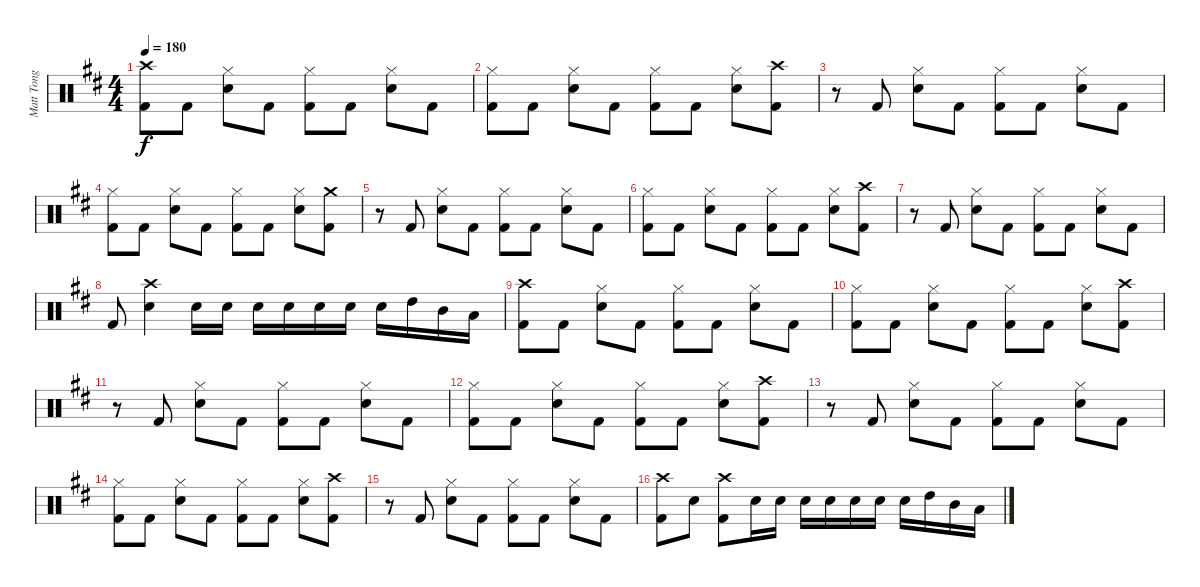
\track ("Matt Tong" "Matt Tong") {instrument percussion}
\staff {score}
\articulation defaults
\ts (4 4)
\tempo 180
\clef neutral
\ks d
("Crash high (hit)" "Kick (hit) 2").8{dy f} "Kick (hit) 2".8 ("Hi-Hat (closed)" "Electric Snare (hit)").8 "Kick (hit) 2".8 ("Hi-Hat (closed)" "Kick (hit) 2").8 "Kick (hit) 2".8 ("Hi-Hat (closed)" "Electric Snare (hit)").8 "Kick (hit) 2".8 |
("Hi-Hat (closed)" "Kick (hit) 2").8 "Kick (hit) 2".8 ("Hi-Hat (closed)" "Electric Snare (hit)").8 "Kick (hit) 2".8 ("Hi-Hat (closed)" "Kick (hit) 2").8 "Kick (hit) 2".8 ("Hi-Hat (closed)" "Electric Snare (hit)").8 ("Crash high (hit)" "Kick (hit) 2").8 |
r.8 "Kick (hit) 2".8 ("Hi-Hat (closed)" "Electric Snare (hit)").8 "Kick (hit) 2".8 ("Hi-Hat (closed)" "Kick (hit) 2").8 "Kick (hit) 2".8 ("Hi-Hat (closed)" "Electric Snare (hit)").8 "Kick (hit) 2".8 |
("Hi-Hat (closed)" "Kick (hit) 2").8 "Kick (hit) 2".8 ("Hi-Hat (closed)" "Electric Snare (hit)").8 "Kick (hit) 2".8 ("Hi-Hat (closed)" "Kick (hit) 2").8 "Kick (hit) 2".8 ("Hi-Hat (closed)" "Electric Snare (hit)").8 ("Crash medium (hit)" "Kick (hit) 2").8 |
r.8 "Kick (hit) 2".8 ("Hi-Hat (closed)" "Electric Snare (hit)").8 "Kick (hit) 2".8 ("Hi-Hat (closed)" "Kick (hit) 2").8 "Kick (hit) 2".8 ("Hi-Hat (closed)" "Electric Snare (hit)").8 "Kick (hit) 2".8 |
("Hi-Hat (closed)" "Kick (hit) 2").8 "Kick (hit) 2".8 ("Hi-Hat (closed)" "Electric Snare (hit)").8 "Kick (hit) 2".8 ("Hi-Hat (closed)" "Kick (hit) 2").8 "Kick (hit) 2".8 ("Hi-Hat (closed)" "Electric Snare (hit)").8 ("Crash high (hit)" "Kick (hit) 2").8 |
r.8 "Kick (hit) 2".8 ("Hi-Hat (closed)" "Electric Snare (hit)").8 "Kick (hit) 2".8 ("Hi-Hat (closed)" "Kick (hit) 2").8 "Kick (hit) 2".8 ("Hi-Hat (closed)" "Electric Snare (hit)").8 "Kick (hit) 2".8 |
"Kick (hit) 2".8 ("Crash high (hit)" "Electric Snare (hit)").4 "Electric Snare (hit)".16 "Electric Snare (hit)".16 "Electric Snare (hit)".16 "Electric Snare (hit)".16 "Electric Snare (hit)".16 "Electric Snare (hit)".16 "Electric Snare (hit)".16 "High Tom (hit)".16 "Mid Tom (hit)".16 "Low Tom (hit)".16 |
("Crash high (hit)" "Kick (hit) 2").8 "Kick (hit) 2".8 ("Hi-Hat (closed)" "Electric Snare (hit)").8 "Kick (hit) 2".8 ("Hi-Hat (closed)" "Kick (hit) 2").8 "Kick (hit) 2".8 ("Hi-Hat (closed)" "Electric Snare (hit)").8 "Kick (hit) 2".8 |
("Hi-Hat (closed)" "Kick (hit) 2").8 "Kick (hit) 2".8 ("Hi-Hat (closed)" "Electric Snare (hit)").8 "Kick (hit) 2".8 ("Hi-Hat (closed)" "Kick (hit) 2").8 "Kick (hit) 2".8 ("Hi-Hat (closed)" "Electric Snare (hit)").8 ("Crash high (hit)" "Kick (hit) 2").8 |
r.8 "Kick (hit) 2".8 ("Hi-Hat (closed)" "Electric Snare (hit)").8 "Kick (hit) 2".8 ("Hi-Hat (closed)" "Kick (hit) 2").8 "Kick (hit) 2".8 ("Hi-Hat (closed)" "Electric Snare (hit)").8 "Kick (hit) 2".8 |
("Hi-Hat (closed)" "Kick (hit) 2").8 "Kick (hit) 2".8 ("Hi-Hat (closed)" "Electric Snare (hit)").8 "Kick (hit) 2".8 ("Hi-Hat (closed)" "Kick (hit) 2").8 "Kick (hit) 2".8 ("Hi-Hat (closed)" "Electric Snare (hit)").8 ("Crash high (hit)" "Kick (hit) 2").8 |
r.8 "Kick (hit) 2".8 ("Hi-Hat (closed)" "Electric Snare (hit)").8 "Kick (hit) 2".8 ("Hi-Hat (closed)" "Kick (hit) 2").8 "Kick (hit) 2".8 ("Hi-Hat (closed)" "Electric Snare (hit)").8 "Kick (hit) 2".8 |
("Hi-Hat (closed)" "Kick (hit) 2").8 "Kick (hit) 2".8 ("Hi-Hat (closed)" "Electric Snare (hit)").8 "Kick (hit) 2".8 ("Hi-Hat (closed)" "Kick (hit) 2").8 "Kick (hit) 2".8 ("Hi-Hat (closed)" "Electric Snare (hit)").8 ("Crash high (hit)" "Kick (hit) 2").8 |
r.8 "Kick (hit) 2".8 ("Hi-Hat (closed)" "Electric Snare (hit)").8 "Kick (hit) 2".8 ("Hi-Hat (closed)" "Kick (hit) 2").8 "Kick (hit) 2".8 ("Hi-Hat (closed)" "Electric Snare (hit)").8 "Kick (hit) 2".8 |
("Crash high (hit)" "Kick (hit) 2").8 "Electric Snare (hit)".8 ("Crash high (hit)" "Kick (hit) 2").8 "Electric Snare (hit)".16 "Electric Snare (hit)".16 "Electric Snare (hit)".16 "Electric Snare (hit)".16 "Electric Snare (hit)".16 "Electric Snare (hit)".16 "Electric Snare (hit)".16 "High Tom (hit)".16 "Mid Tom (hit)".16 "Low Tom (hit)".16
